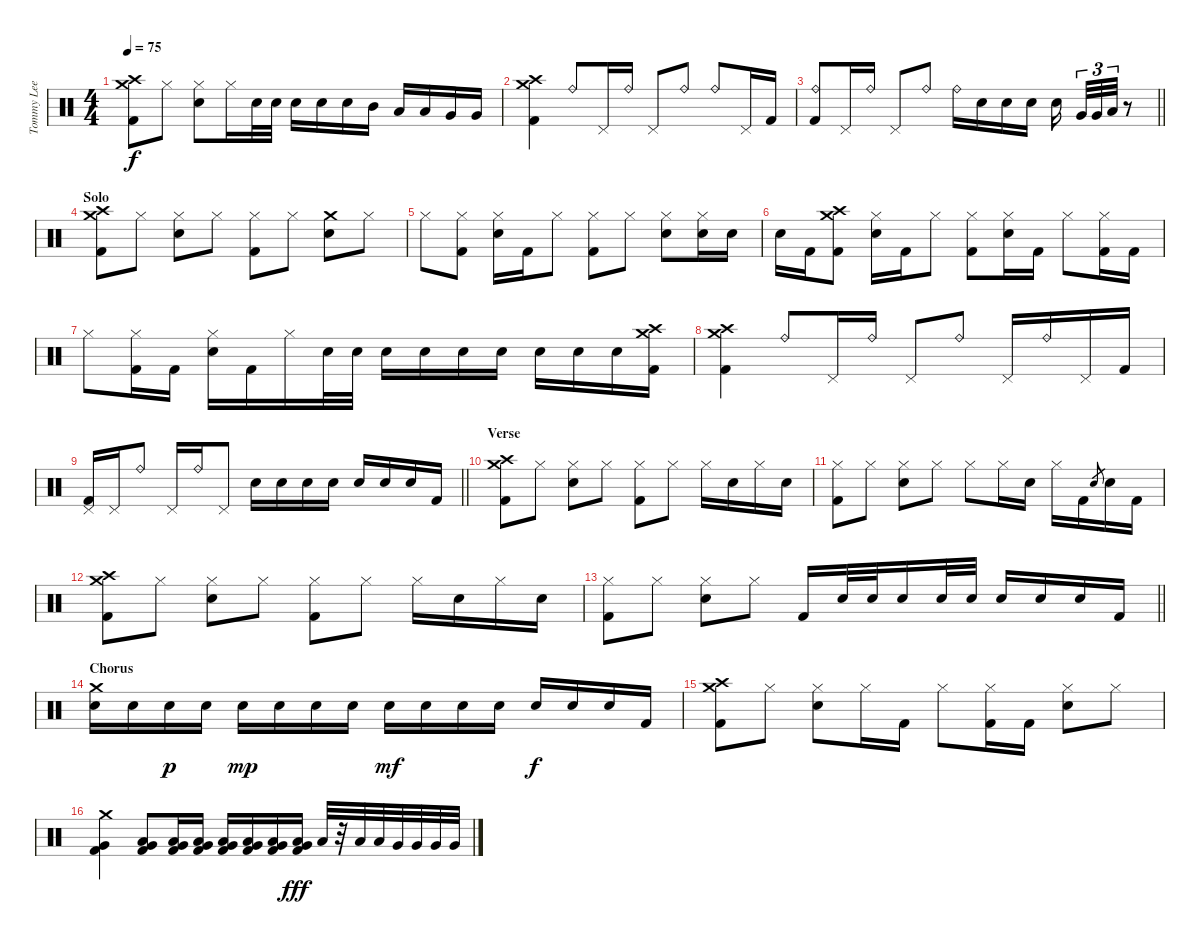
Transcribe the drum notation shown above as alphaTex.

\track ("Tommy Lee - Drums" "Tommy Lee ") {instrument percussion}
\staff {score}
\articulation defaults
\ts (4 4)
\tempo 75
\clef neutral
\ks c
("Crash medium (hit)" "Crash high (hit)" "Kick (hit) 2").8{dy f} "Hi-Hat (closed)".8 ("Hi-Hat (closed)" "Snare (hit) 2").8 "Hi-Hat (closed)".16 "Snare (hit) 2".32 "Snare (hit) 2".32 "Snare (hit) 2".16 "Snare (hit) 2".16 "Snare (hit) 2".16 "Mid Tom (hit)".16 "Low Tom (hit)".16 "Low Tom (hit)".16 "Very Low Tom (hit)".16 "Very Low Tom (hit)".16 |
("Crash medium (hit)" "Crash high (hit)" "Kick (hit) 2").4 "Ride (bell)".8 "Pedal Hi-Hat (hit)".16 "Ride (bell)".16 "Pedal Hi-Hat (hit)".8 "Ride (bell)".8 "Ride (bell)".8 "Pedal Hi-Hat (hit)".16 "Kick (hit) 2".16 |
\barLineRight lightlight
("Ride (bell)" "Kick (hit) 2").8 "Pedal Hi-Hat (hit)".16 "Ride (bell)".16 "Pedal Hi-Hat (hit)".8 "Ride (bell)".8 "Ride (bell)".16 "Snare (hit) 2".16 "Snare (hit) 2".16 "Snare (hit) 2".16 "Snare (hit) 2".16{beam splitsecondary} "Very Low Tom (hit)".32{tu (3 2)} "Very Low Tom (hit)".32{tu (3 2)} "Low Floor Tom (hit)".32{tu (3 2)} r.8 |
\section ("" "Solo")
("Crash medium (hit)" "Crash high (hit)" "Kick (hit) 2").8 "Hi-Hat (closed)".8 ("Hi-Hat (closed)" "Snare (hit) 2").8 "Hi-Hat (closed)".8 ("Hi-Hat (closed)" "Kick (hit) 2").8 "Hi-Hat (closed)".8 ("Crash medium (hit)" "Snare (hit) 2").8 "Hi-Hat (closed)".8 |
"Hi-Hat (closed)".8 ("Hi-Hat (closed)" "Kick (hit) 2").8 ("Hi-Hat (closed)" "Snare (hit) 2").16 "Kick (hit) 2".16 "Hi-Hat (closed)".8 ("Hi-Hat (closed)" "Kick (hit) 2").8 "Hi-Hat (closed)".8 ("Hi-Hat (closed)" "Snare (hit) 2").8 ("Hi-Hat (closed)" "Snare (hit) 2").16 "Snare (hit) 2".16 |
"Snare (hit) 2".16 "Kick (hit) 2".16 ("Crash medium (hit)" "Crash high (hit)" "Kick (hit) 2").8 ("Hi-Hat (closed)" "Snare (hit) 2").16 "Kick (hit) 2".16 "Hi-Hat (closed)".8 ("Hi-Hat (closed)" "Kick (hit) 2").8 ("Hi-Hat (closed)" "Snare (hit) 2").16 "Kick (hit) 2".16 "Hi-Hat (closed)".8 ("Hi-Hat (closed)" "Kick (hit) 2").16 "Kick (hit) 2".16 |
"Hi-Hat (closed)".8 ("Hi-Hat (closed)" "Kick (hit) 2").16 "Kick (hit) 2".16 ("Hi-Hat (closed)" "Snare (hit) 2").16 "Kick (hit) 2".16 "Hi-Hat (closed)".16 "Snare (hit) 2".32 "Snare (hit) 2".32 "Snare (hit) 2".16 "Snare (hit) 2".16 "Snare (hit) 2".16 "Snare (hit) 2".16 "Snare (hit) 2".16 "Snare (hit) 2".16 "Snare (hit) 2".16 ("Crash medium (hit)" "Crash high (hit)" "Kick (hit) 2").16 |
("Crash high (hit)" "Crash medium (hit)" "Kick (hit) 2").4 "Ride (bell)".8 "Pedal Hi-Hat (hit)".16 "Ride (bell)".16 "Pedal Hi-Hat (hit)".8 "Ride (bell)".8 "Pedal Hi-Hat (hit)".16 "Ride (bell)".16 "Pedal Hi-Hat (hit)".16 "Kick (hit) 2".16 |
\barLineRight lightlight
("Pedal Hi-Hat (hit)" "Kick (hit) 2").16 "Pedal Hi-Hat (hit)".16 "Ride (bell)".8 "Pedal Hi-Hat (hit)".16 "Ride (bell)".16 "Pedal Hi-Hat (hit)".8 "Snare (hit) 2".16 "Snare (hit) 2".16 "Snare (hit) 2".16 "Snare (hit) 2".16 "Snare (hit) 2".16 "Snare (hit) 2".16 "Snare (hit) 2".16 "Kick (hit) 2".16 |
\section ("" "Verse")
("Crash medium (hit)" "Crash high (hit)" "Kick (hit) 2").8 "Hi-Hat (closed)".8 ("Hi-Hat (closed)" "Snare (hit) 2").8 "Hi-Hat (closed)".8 ("Hi-Hat (closed)" "Kick (hit) 2").8 "Hi-Hat (closed)".8 "Hi-Hat (closed)".16 "Snare (hit) 2".16 "Hi-Hat (closed)".16 "Snare (hit) 2".16 |
("Hi-Hat (closed)" "Kick (hit) 2").8 "Hi-Hat (closed)".8 ("Hi-Hat (closed)" "Snare (hit) 2").8 "Hi-Hat (closed)".8 "Hi-Hat (closed)".8 "Hi-Hat (closed)".16 "Snare (hit) 2".16 "Hi-Hat (closed)".16 "Kick (hit) 2".16 "Snare (hit) 2".8{gr} "Snare (hit) 2".16 "Kick (hit) 2".16 |
("Crash medium (hit)" "Crash high (hit)" "Kick (hit) 2").8 "Hi-Hat (closed)".8 ("Hi-Hat (closed)" "Snare (hit) 2").8 "Hi-Hat (closed)".8 ("Hi-Hat (closed)" "Kick (hit) 2").8 "Hi-Hat (closed)".8 "Hi-Hat (closed)".16 "Snare (hit) 2".16 "Hi-Hat (closed)".16 "Snare (hit) 2".16 |
\barLineRight lightlight
("Hi-Hat (closed)" "Kick (hit) 2").8 "Hi-Hat (closed)".8 ("Hi-Hat (closed)" "Snare (hit) 2").8 "Hi-Hat (closed)".8 "Kick (hit) 2".16 "Snare (hit) 2".32 "Snare (hit) 2".32 "Snare (hit) 2".16 "Snare (hit) 2".32 "Snare (hit) 2".32 "Snare (hit) 2".16 "Snare (hit) 2".16 "Snare (hit) 2".16 "Kick (hit) 2".16 |
\section ("" "Chorus")
("Crash medium (hit)" "Snare (hit) 2").16 "Snare (hit) 2".16 "Snare (hit) 2".16{dy p} "Snare (hit) 2".16 "Snare (hit) 2".16{dy mp} "Snare (hit) 2".16 "Snare (hit) 2".16 "Snare (hit) 2".16 "Snare (hit) 2".16{dy mf} "Snare (hit) 2".16 "Snare (hit) 2".16 "Snare (hit) 2".16 "Snare (hit) 2".16{dy f} "Snare (hit) 2".16 "Snare (hit) 2".16 "Kick (hit) 2".16 |
("Crash medium (hit)" "Crash high (hit)" "Kick (hit) 2").8 "Hi-Hat (closed)".8 ("Hi-Hat (closed)" "Snare (hit) 2").8 "Hi-Hat (closed)".16 "Kick (hit) 2".16 "Hi-Hat (closed)".8 ("Hi-Hat (closed)" "Kick (hit) 2").16 "Kick (hit) 2".16 ("Hi-Hat (closed)" "Snare (hit) 2").8 "Hi-Hat (closed)".8 |
("Crash medium (hit)" "Very Low Tom (hit)" "Kick (hit) 2").4 ("Low Tom (hit)" "Very Low Tom (hit)" "Kick (hit) 2").8 ("Low Tom (hit)" "Very Low Tom (hit)" "Kick (hit) 2").16 ("Low Tom (hit)" "Very Low Tom (hit)" "Kick (hit) 2").16 ("Low Tom (hit)" "Very Low Tom (hit)" "Kick (hit) 2").16 ("Low Tom (hit)" "Very Low Tom (hit)" "Kick (hit) 2").16 ("Low Tom (hit)" "Very Low Tom (hit)" "Kick (hit) 2").16 ("Low Tom (hit)" "Very Low Tom (hit)" "Kick (hit) 2").16{dy fff} "Low Tom (hit)".32 r.32 "Low Tom (hit)".32 "Low Tom (hit)".32 "Very Low Tom (hit)".32 "Very Low Tom (hit)".32 "Very Low Tom (hit)".32 "Very Low Tom (hit)".32
